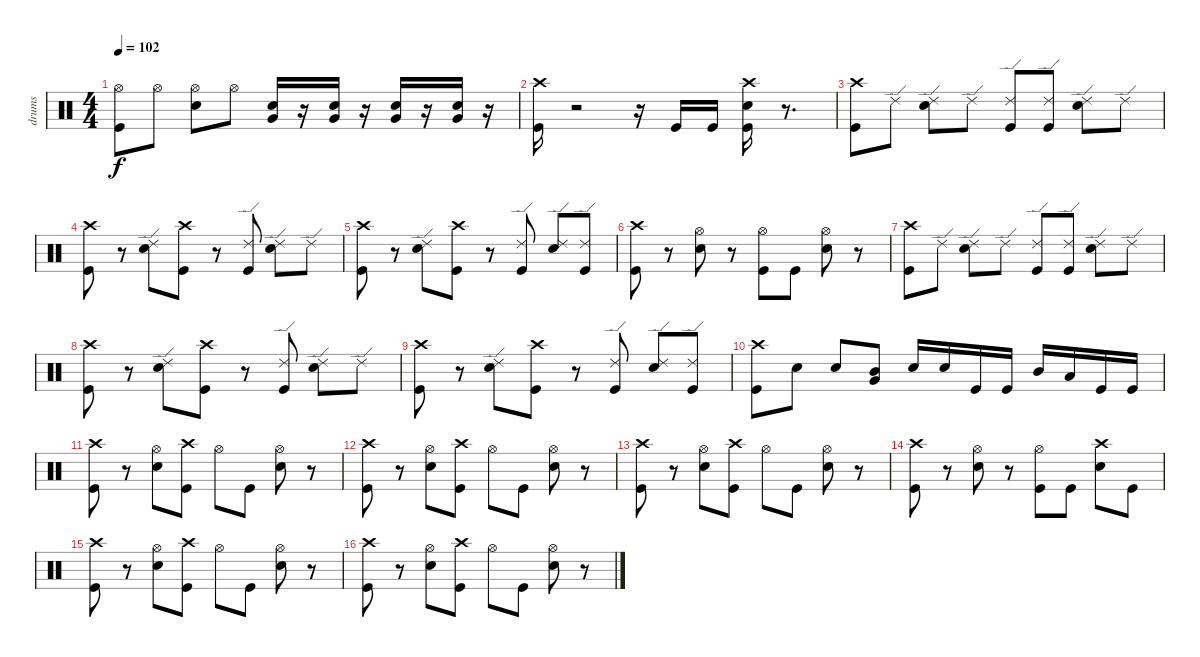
\track ("drums" "drums") {instrument percussion}
\staff {score}
\articulation defaults
\ts (4 4)
\tempo 102
\clef neutral
\ks c
("Hi-Hat (open)" "Kick (hit)").8{dy f} "Hi-Hat (open)".8 ("Hi-Hat (open)" "Snare (hit) 2").8 "Hi-Hat (open)".8 ("Snare (hit) 2" "Very Low Tom (hit)").16 r.16 ("Snare (hit) 2" "Very Low Tom (hit)").16 r.16 ("Snare (hit) 2" "Very Low Tom (hit)").16 r.16 ("Snare (hit) 2" "Very Low Tom (hit)").16 r.16 |
("Crash high (hit)" "Kick (hit)").16 r.2 r.16 "Kick (hit)".16 "Kick (hit)".16 ("Crash high (hit)" "Snare (hit) 2" "Kick (hit)").16 r.8{d} |
("Crash high (hit)" "Kick (hit)").8 "Ride (edge) 2".8 ("Ride (edge) 2" "Snare (hit) 2").8 "Ride (edge) 2".8 ("Kick (hit)" "Ride (edge) 2").8 ("Ride (edge) 2" "Kick (hit)").8 ("Ride (edge) 2" "Snare (hit) 2").8 "Ride (edge) 2".8 |
("Crash high (hit)" "Kick (hit)").8 r.8 ("Ride (edge) 2" "Snare (hit) 2").8 ("Crash high (hit)" "Kick (hit)").8 r.8 ("Ride (edge) 2" "Kick (hit)").8 ("Ride (edge) 2" "Snare (hit) 2").8 "Ride (edge) 2".8 |
("Crash high (hit)" "Kick (hit)").8 r.8 ("Ride (edge) 2" "Snare (hit) 2").8 ("Crash high (hit)" "Kick (hit)").8 r.8 ("Ride (edge) 2" "Kick (hit)").8 ("Ride (edge) 2" "Snare (hit) 2").8 ("Ride (edge) 2" "Kick (hit)").8 |
("Crash high (hit)" "Kick (hit)").8 r.8 ("Hi-Hat (open)" "Snare (hit) 2").8 r.8 ("Hi-Hat (open)" "Kick (hit)").8 "Kick (hit)".8 ("Hi-Hat (open)" "Snare (hit) 2").8 r.8 |
("Crash high (hit)" "Kick (hit)").8 "Ride (edge) 2".8 ("Ride (edge) 2" "Snare (hit) 2").8 "Ride (edge) 2".8 ("Kick (hit)" "Ride (edge) 2").8 ("Ride (edge) 2" "Kick (hit)").8 ("Ride (edge) 2" "Snare (hit) 2").8 "Ride (edge) 2".8 |
("Crash high (hit)" "Kick (hit)").8 r.8 ("Ride (edge) 2" "Snare (hit) 2").8 ("Crash high (hit)" "Kick (hit)").8 r.8 ("Ride (edge) 2" "Kick (hit)").8 ("Ride (edge) 2" "Snare (hit) 2").8 "Ride (edge) 2".8 |
("Crash high (hit)" "Kick (hit)").8 r.8 ("Ride (edge) 2" "Snare (hit) 2").8 ("Crash high (hit)" "Kick (hit)").8 r.8 ("Ride (edge) 2" "Kick (hit)").8 ("Ride (edge) 2" "Snare (hit) 2").8 ("Ride (edge) 2" "Kick (hit)").8 |
("Crash high (hit)" "Kick (hit)").8 "Snare (hit) 2".8 "Snare (hit) 2".8 ("Mid Tom (hit)" "Very Low Tom (hit)").8 "Snare (hit) 2".16 "Snare (hit) 2".16 "Kick (hit)".16 "Kick (hit)".16 "Mid Tom (hit)".16 "Low Tom (hit)".16 "Kick (hit)".16 "Kick (hit)".16 |
("Crash high (hit)" "Kick (hit)").8 r.8 ("Hi-Hat (open)" "Snare (hit) 2").8 ("Crash high (hit)" "Kick (hit)").8 "Hi-Hat (open)".8 "Kick (hit)".8 ("Hi-Hat (open)" "Snare (hit) 2").8 r.8 |
("Crash high (hit)" "Kick (hit)").8 r.8 ("Hi-Hat (open)" "Snare (hit) 2").8 ("Crash high (hit)" "Kick (hit)").8 "Hi-Hat (open)".8 "Kick (hit)".8 ("Hi-Hat (open)" "Snare (hit) 2").8 r.8 |
("Crash high (hit)" "Kick (hit)").8 r.8 ("Hi-Hat (open)" "Snare (hit) 2").8 ("Crash high (hit)" "Kick (hit)").8 "Hi-Hat (open)".8 "Kick (hit)".8 ("Hi-Hat (open)" "Snare (hit) 2").8 r.8 |
("Crash high (hit)" "Kick (hit)").8 r.8 ("Hi-Hat (open)" "Snare (hit) 2").8 r.8 ("Hi-Hat (open)" "Kick (hit)").8 "Kick (hit)".8 ("Crash high (hit)" "Snare (hit) 2").8 "Kick (hit)".8 |
("Crash high (hit)" "Kick (hit)").8 r.8 ("Hi-Hat (open)" "Snare (hit) 2").8 ("Crash high (hit)" "Kick (hit)").8 "Hi-Hat (open)".8 "Kick (hit)".8 ("Hi-Hat (open)" "Snare (hit) 2").8 r.8 |
("Crash high (hit)" "Kick (hit)").8 r.8 ("Hi-Hat (open)" "Snare (hit) 2").8 ("Crash high (hit)" "Kick (hit)").8 "Hi-Hat (open)".8 "Kick (hit)".8 ("Hi-Hat (open)" "Snare (hit) 2").8 r.8
